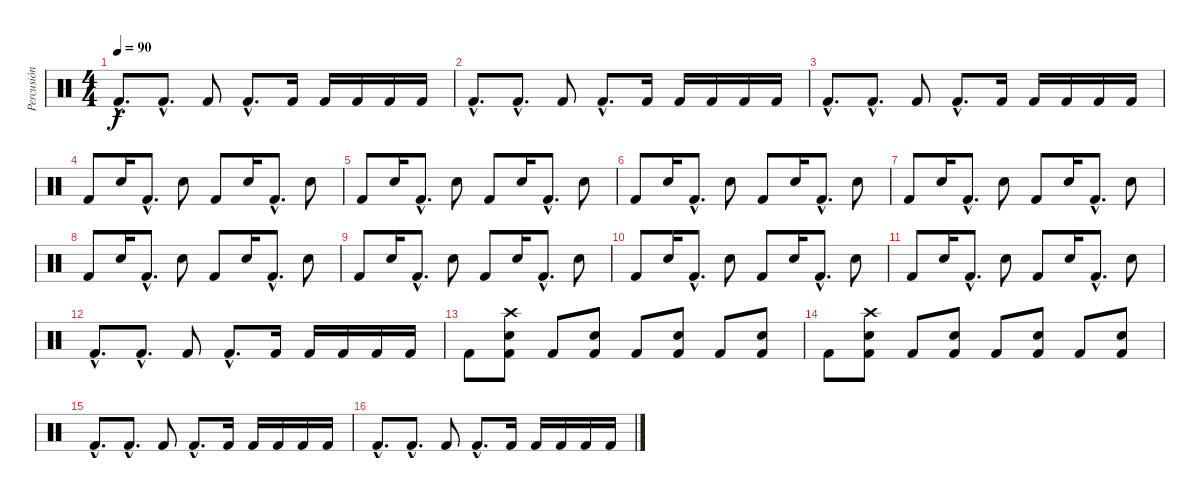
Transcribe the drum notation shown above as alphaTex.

\track ("Percusión" "Percusión") {instrument percussion}
\staff {score}
\articulation defaults
\ts (4 4)
\tempo 90
\clef neutral
\ks c "Kick (hit) 2"{hac}.8{d dy f} "Kick (hit) 2"{hac}.8{d} "Kick (hit) 2".8 "Kick (hit) 2"{hac}.8{d} "Kick (hit) 2".16 "Kick (hit) 2".16 "Kick (hit) 2".16 "Kick (hit) 2".16 "Kick (hit) 2".16
|
"Kick (hit) 2"{hac}.8{d} "Kick (hit) 2"{hac}.8{d} "Kick (hit) 2".8 "Kick (hit) 2"{hac}.8{d} "Kick (hit) 2".16 "Kick (hit) 2".16 "Kick (hit) 2".16 "Kick (hit) 2".16 "Kick (hit) 2".16 |
"Kick (hit) 2"{hac}.8{d} "Kick (hit) 2"{hac}.8{d} "Kick (hit) 2".8 "Kick (hit) 2"{hac}.8{d} "Kick (hit) 2".16 "Kick (hit) 2".16 "Kick (hit) 2".16 "Kick (hit) 2".16 "Kick (hit) 2".16 |
"Kick (hit) 2".8 "Electric Snare (hit)".16 "Kick (hit) 2"{hac}.8{d} "Electric Snare (hit)".8 "Kick (hit) 2".8 "Electric Snare (hit)".16 "Kick (hit) 2"{hac}.8{d} "Electric Snare (hit)".8 |
"Kick (hit) 2".8 "Electric Snare (hit)".16 "Kick (hit) 2"{hac}.8{d} "Electric Snare (hit)".8 "Kick (hit) 2".8 "Electric Snare (hit)".16 "Kick (hit) 2"{hac}.8{d} "Electric Snare (hit)".8 |
"Kick (hit) 2".8 "Electric Snare (hit)".16 "Kick (hit) 2"{hac}.8{d} "Electric Snare (hit)".8 "Kick (hit) 2".8 "Electric Snare (hit)".16 "Kick (hit) 2"{hac}.8{d} "Electric Snare (hit)".8 |
"Kick (hit) 2".8 "Electric Snare (hit)".16 "Kick (hit) 2"{hac}.8{d} "Electric Snare (hit)".8 "Kick (hit) 2".8 "Electric Snare (hit)".16 "Kick (hit) 2"{hac}.8{d} "Electric Snare (hit)".8 |
"Kick (hit) 2".8 "Electric Snare (hit)".16 "Kick (hit) 2"{hac}.8{d} "Electric Snare (hit)".8 "Kick (hit) 2".8 "Electric Snare (hit)".16 "Kick (hit) 2"{hac}.8{d} "Electric Snare (hit)".8 |
"Kick (hit) 2".8 "Electric Snare (hit)".16 "Kick (hit) 2"{hac}.8{d} "Electric Snare (hit)".8 "Kick (hit) 2".8 "Electric Snare (hit)".16 "Kick (hit) 2"{hac}.8{d} "Electric Snare (hit)".8 |
"Kick (hit) 2".8 "Electric Snare (hit)".16 "Kick (hit) 2"{hac}.8{d} "Electric Snare (hit)".8 "Kick (hit) 2".8 "Electric Snare (hit)".16 "Kick (hit) 2"{hac}.8{d} "Electric Snare (hit)".8 |
"Kick (hit) 2".8 "Electric Snare (hit)".16 "Kick (hit) 2"{hac}.8{d} "Electric Snare (hit)".8 "Kick (hit) 2".8 "Electric Snare (hit)".16 "Kick (hit) 2"{hac}.8{d} "Electric Snare (hit)".8 |
"Kick (hit) 2"{hac}.8{d} "Kick (hit) 2"{hac}.8{d} "Kick (hit) 2".8 "Kick (hit) 2"{hac}.8{d} "Kick (hit) 2".16 "Kick (hit) 2".16 "Kick (hit) 2".16 "Kick (hit) 2".16 "Kick (hit) 2".16 |
"Kick (hit) 2".8 ("Electric Snare (hit)" "Kick (hit) 2" "Crash high (hit)").8 "Kick (hit) 2".8 ("Electric Snare (hit)" "Kick (hit) 2").8 "Kick (hit) 2".8 ("Electric Snare (hit)" "Kick (hit) 2").8 "Kick (hit) 2".8 ("Electric Snare (hit)" "Kick (hit) 2").8 |
"Kick (hit) 2".8 ("Electric Snare (hit)" "Kick (hit) 2" "Crash high (hit)").8 "Kick (hit) 2".8 ("Electric Snare (hit)" "Kick (hit) 2").8 "Kick (hit) 2".8 ("Electric Snare (hit)" "Kick (hit) 2").8 "Kick (hit) 2".8 ("Electric Snare (hit)" "Kick (hit) 2").8 |
"Kick (hit) 2"{hac}.8{d} "Kick (hit) 2"{hac}.8{d} "Kick (hit) 2".8 "Kick (hit) 2"{hac}.8{d} "Kick (hit) 2".16 "Kick (hit) 2".16 "Kick (hit) 2".16 "Kick (hit) 2".16 "Kick (hit) 2".16 |
"Kick (hit) 2"{hac}.8{d} "Kick (hit) 2"{hac}.8{d} "Kick (hit) 2".8 "Kick (hit) 2"{hac}.8{d} "Kick (hit) 2".16 "Kick (hit) 2".16 "Kick (hit) 2".16 "Kick (hit) 2".16 "Kick (hit) 2".16
